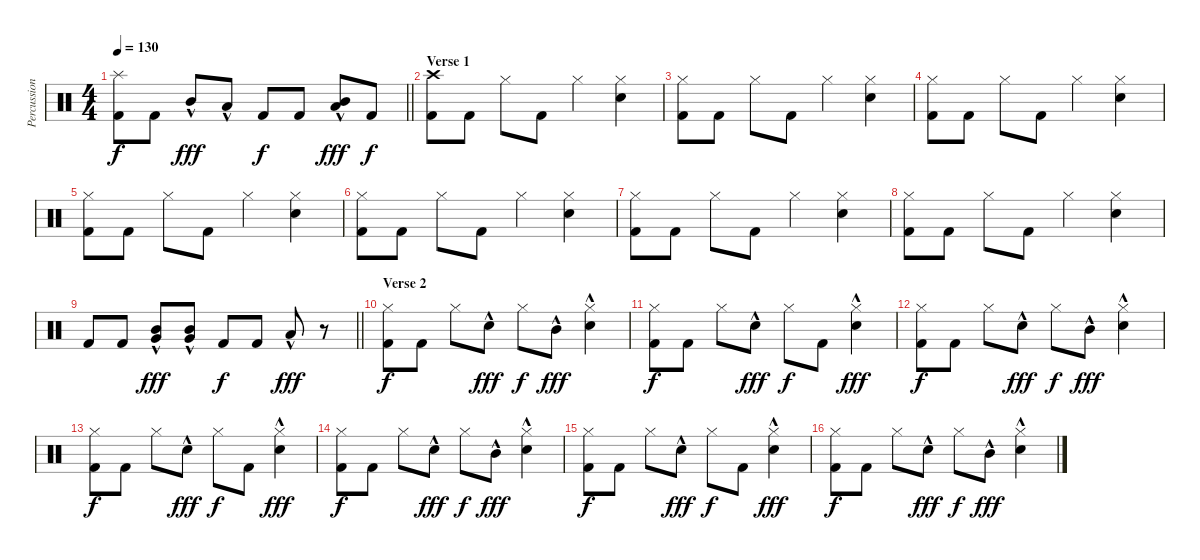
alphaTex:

\track ("Percussion 1" "Percussion") {instrument percussion}
\staff {score}
\articulation defaults
\ts (4 4)
\tempo 130
\clef neutral
\barLineRight lightlight
\ks c
("Splash (hit)" "Kick (hit) 2").8{dy f} "Kick (hit) 2".8 "Mid Tom (hit)"{hac}.8{dy fff} "Low Tom (hit)"{hac}.8 "Kick (hit) 2".8{dy f} "Kick (hit) 2".8 ("Mid Tom (hit)"{hac} "Low Tom (hit)"{hac}).8{dy fff} "Kick (hit) 2".8{dy f} |
\section ("" "Verse 1")
("Crash high (hit)" "Kick (hit) 2").8 "Kick (hit) 2".8 "Hi-Hat (closed)".8 "Kick (hit) 2".8 "Hi-Hat (closed)".4 ("Hi-Hat (closed)" "Electric Snare (hit)").4 |
("Hi-Hat (closed)" "Kick (hit) 2").8 "Kick (hit) 2".8 "Hi-Hat (closed)".8 "Kick (hit) 2".8 "Hi-Hat (closed)".4 ("Hi-Hat (closed)" "Electric Snare (hit)").4 |
("Hi-Hat (closed)" "Kick (hit) 2").8 "Kick (hit) 2".8 "Hi-Hat (closed)".8 "Kick (hit) 2".8 "Hi-Hat (closed)".4 ("Hi-Hat (closed)" "Electric Snare (hit)").4 |
("Hi-Hat (closed)" "Kick (hit) 2").8 "Kick (hit) 2".8 "Hi-Hat (closed)".8 "Kick (hit) 2".8 "Hi-Hat (closed)".4 ("Hi-Hat (closed)" "Electric Snare (hit)").4 |
("Hi-Hat (closed)" "Kick (hit) 2").8 "Kick (hit) 2".8 "Hi-Hat (closed)".8 "Kick (hit) 2".8 "Hi-Hat (closed)".4 ("Hi-Hat (closed)" "Electric Snare (hit)").4 |
("Hi-Hat (closed)" "Kick (hit) 2").8 "Kick (hit) 2".8 "Hi-Hat (closed)".8 "Kick (hit) 2".8 "Hi-Hat (closed)".4 ("Hi-Hat (closed)" "Electric Snare (hit)").4 |
("Hi-Hat (closed)" "Kick (hit) 2").8 "Kick (hit) 2".8 "Hi-Hat (closed)".8 "Kick (hit) 2".8 "Hi-Hat (closed)".4 ("Hi-Hat (closed)" "Electric Snare (hit)").4 |
\barLineRight lightlight "Kick (hit) 2".8 "Kick (hit) 2".8
("Mid Tom (hit)"{hac} "Very Low Tom (hit)").8{dy fff} ("Mid Tom (hit)"{hac} "Very Low Tom (hit)").8 "Kick (hit) 2".8{dy f} "Kick (hit) 2".8 "Low Tom (hit)"{hac}.8{dy fff} r.8 |
\section ("" "Verse 2")
("Hi-Hat (closed)" "Kick (hit) 2").8{dy f} "Kick (hit) 2".8 "Hi-Hat (closed)".8 "Electric Snare (hit)"{hac}.8{dy fff} "Hi-Hat (closed)".8{dy f} "Mid Tom (hit)"{hac}.8{dy fff} ("Hi-Hat (closed)" "Electric Snare (hit)"{hac}).4 |
("Hi-Hat (closed)" "Kick (hit) 2").8{dy f} "Kick (hit) 2".8 "Hi-Hat (closed)".8 "Electric Snare (hit)"{hac}.8{dy fff} "Hi-Hat (closed)".8{dy f} "Kick (hit) 2".8 ("Hi-Hat (closed)" "Electric Snare (hit)"{hac}).4{dy fff} |
("Hi-Hat (closed)" "Kick (hit) 2").8{dy f} "Kick (hit) 2".8 "Hi-Hat (closed)".8 "Electric Snare (hit)"{hac}.8{dy fff} "Hi-Hat (closed)".8{dy f} "Mid Tom (hit)"{hac}.8{dy fff} ("Hi-Hat (closed)" "Electric Snare (hit)"{hac}).4 |
("Hi-Hat (closed)" "Kick (hit) 2").8{dy f} "Kick (hit) 2".8 "Hi-Hat (closed)".8 "Electric Snare (hit)"{hac}.8{dy fff} "Hi-Hat (closed)".8{dy f} "Kick (hit) 2".8 ("Hi-Hat (closed)" "Electric Snare (hit)"{hac}).4{dy fff} |
("Hi-Hat (closed)" "Kick (hit) 2").8{dy f} "Kick (hit) 2".8 "Hi-Hat (closed)".8 "Electric Snare (hit)"{hac}.8{dy fff} "Hi-Hat (closed)".8{dy f} "Mid Tom (hit)"{hac}.8{dy fff} ("Hi-Hat (closed)" "Electric Snare (hit)"{hac}).4 |
("Hi-Hat (closed)" "Kick (hit) 2").8{dy f} "Kick (hit) 2".8 "Hi-Hat (closed)".8 "Electric Snare (hit)"{hac}.8{dy fff} "Hi-Hat (closed)".8{dy f} "Kick (hit) 2".8 ("Hi-Hat (closed)" "Electric Snare (hit)"{hac}).4{dy fff} |
("Hi-Hat (closed)" "Kick (hit) 2").8{dy f} "Kick (hit) 2".8 "Hi-Hat (closed)".8 "Electric Snare (hit)"{hac}.8{dy fff} "Hi-Hat (closed)".8{dy f} "Mid Tom (hit)"{hac}.8{dy fff} ("Hi-Hat (closed)" "Electric Snare (hit)"{hac}).4
